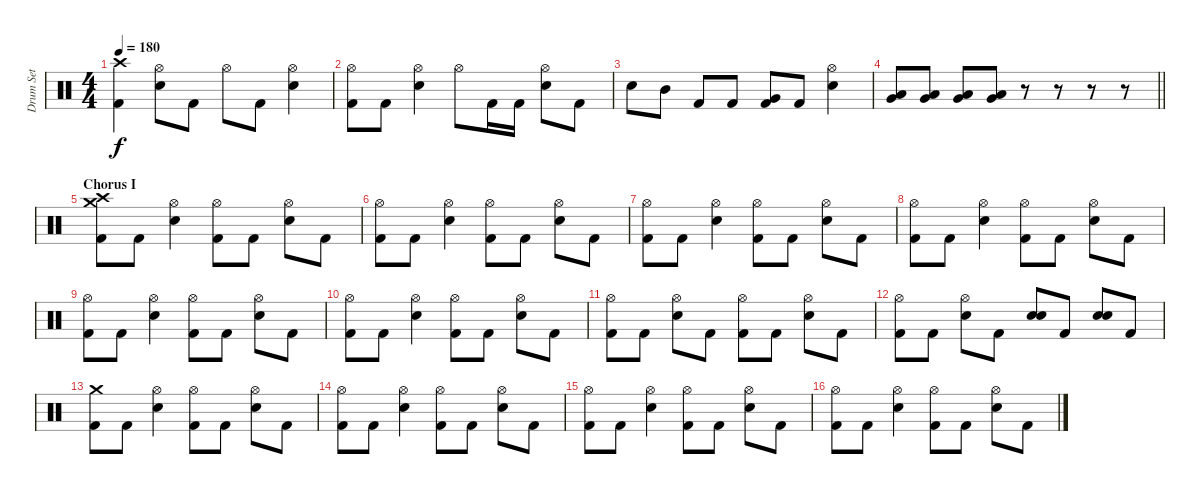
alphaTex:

\track ("Drum Set" "Drum Set") {instrument percussion}
\staff {score}
\articulation defaults
\ts (4 4)
\tempo 180
\clef neutral
\ks c
("Crash high (hit)" "Kick (hit) 2").4{dy f} ("Hi-Hat (open)" "Snare (hit) 2").8 "Kick (hit) 2".8 "Hi-Hat (open)".8 "Kick (hit) 2".8 ("Hi-Hat (open)" "Snare (hit) 2").4 |
("Hi-Hat (open)" "Kick (hit) 2").8 "Kick (hit) 2".8 ("Hi-Hat (open)" "Snare (hit) 2").4 "Hi-Hat (open)".8 "Kick (hit) 2".16 "Kick (hit) 2".16 ("Hi-Hat (open)" "Snare (hit) 2").8 "Kick (hit) 2".8 |
"Snare (hit) 2".8 "Mid Tom (hit)".8 "Kick (hit) 2".8 "Kick (hit) 2".8 ("Very Low Tom (hit)" "Kick (hit) 2").8 "Kick (hit) 2".8 ("Hi-Hat (open)" "Snare (hit) 2").4 |
\barLineRight lightlight
("Low Tom (hit)" "Very Low Tom (hit)").8 ("Low Tom (hit)" "Very Low Tom (hit)").8 ("Low Tom (hit)" "Very Low Tom (hit)").8 ("Low Tom (hit)" "Very Low Tom (hit)").8 r.8 r.8 r.8 r.8 |
\section ("" "Chorus I")
("Crash medium (hit)" "Crash high (hit)" "Kick (hit) 2").8 "Kick (hit) 2".8 ("Hi-Hat (open)" "Snare (hit) 2").4 ("Hi-Hat (open)" "Kick (hit) 2").8 "Kick (hit) 2".8 ("Hi-Hat (open)" "Snare (hit) 2").8 "Kick (hit) 2".8 |
("Hi-Hat (open)" "Kick (hit) 2").8 "Kick (hit) 2".8 ("Hi-Hat (open)" "Snare (hit) 2").4 ("Hi-Hat (open)" "Kick (hit) 2").8 "Kick (hit) 2".8 ("Hi-Hat (open)" "Snare (hit) 2").8 "Kick (hit) 2".8 |
("Hi-Hat (open)" "Kick (hit) 2").8 "Kick (hit) 2".8 ("Hi-Hat (open)" "Snare (hit) 2").4 ("Hi-Hat (open)" "Kick (hit) 2").8 "Kick (hit) 2".8 ("Hi-Hat (open)" "Snare (hit) 2").8 "Kick (hit) 2".8 |
("Hi-Hat (open)" "Kick (hit) 2").8 "Kick (hit) 2".8 ("Hi-Hat (open)" "Snare (hit) 2").4 ("Hi-Hat (open)" "Kick (hit) 2").8 "Kick (hit) 2".8 ("Hi-Hat (open)" "Snare (hit) 2").8 "Kick (hit) 2".8 |
("Hi-Hat (open)" "Kick (hit) 2").8 "Kick (hit) 2".8 ("Hi-Hat (open)" "Snare (hit) 2").4 ("Hi-Hat (open)" "Kick (hit) 2").8 "Kick (hit) 2".8 ("Hi-Hat (open)" "Snare (hit) 2").8 "Kick (hit) 2".8 |
("Hi-Hat (open)" "Kick (hit) 2").8 "Kick (hit) 2".8 ("Hi-Hat (open)" "Snare (hit) 2").4 ("Hi-Hat (open)" "Kick (hit) 2").8 "Kick (hit) 2".8 ("Hi-Hat (open)" "Snare (hit) 2").8 "Kick (hit) 2".8 |
("Hi-Hat (open)" "Kick (hit) 2").8 "Kick (hit) 2".8 ("Hi-Hat (open)" "Snare (hit) 2").8 "Kick (hit) 2".8 ("Hi-Hat (open)" "Kick (hit) 2").8 "Kick (hit) 2".8 ("Hi-Hat (open)" "Snare (hit) 2").8 "Kick (hit) 2".8 |
("Hi-Hat (open)" "Kick (hit) 2").8 "Kick (hit) 2".8 ("Hi-Hat (open)" "Snare (hit) 2").8 "Kick (hit) 2".8 ("Snare (hit) 2" "Snare (hit) 2").8 "Kick (hit) 2".8 ("Snare (hit) 2" "Snare (hit) 2").8 "Kick (hit) 2".8 |
("Crash medium (hit)" "Kick (hit) 2").8 "Kick (hit) 2".8 ("Hi-Hat (open)" "Snare (hit) 2").4 ("Hi-Hat (open)" "Kick (hit) 2").8 "Kick (hit) 2".8 ("Hi-Hat (open)" "Snare (hit) 2").8 "Kick (hit) 2".8 |
("Hi-Hat (open)" "Kick (hit) 2").8 "Kick (hit) 2".8 ("Hi-Hat (open)" "Snare (hit) 2").4 ("Hi-Hat (open)" "Kick (hit) 2").8 "Kick (hit) 2".8 ("Hi-Hat (open)" "Snare (hit) 2").8 "Kick (hit) 2".8 |
("Hi-Hat (open)" "Kick (hit) 2").8 "Kick (hit) 2".8 ("Hi-Hat (open)" "Snare (hit) 2").4 ("Hi-Hat (open)" "Kick (hit) 2").8 "Kick (hit) 2".8 ("Hi-Hat (open)" "Snare (hit) 2").8 "Kick (hit) 2".8 |
("Hi-Hat (open)" "Kick (hit) 2").8 "Kick (hit) 2".8 ("Hi-Hat (open)" "Snare (hit) 2").4 ("Hi-Hat (open)" "Kick (hit) 2").8 "Kick (hit) 2".8 ("Hi-Hat (open)" "Snare (hit) 2").8 "Kick (hit) 2".8
